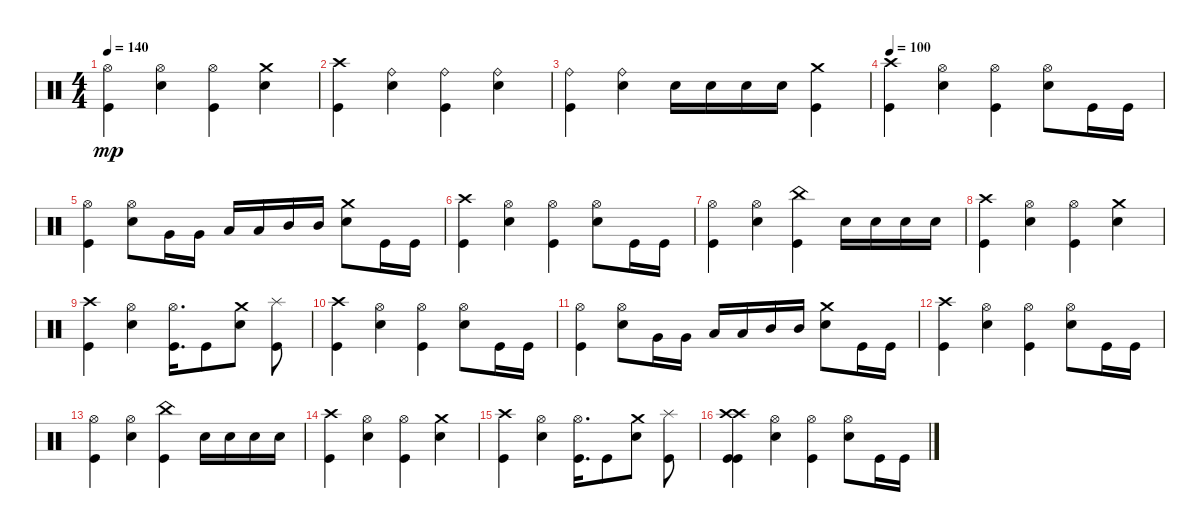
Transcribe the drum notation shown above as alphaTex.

\track "" {instrument percussion}
\staff {score}
\articulation defaults
\ts (4 4)
\tempo 140
\clef neutral
\ks c
("Kick (hit)" "Hi-Hat (open)").4{dy mp} ("Snare (hit) 2" "Hi-Hat (open)").4 ("Kick (hit)" "Hi-Hat (open)").4 ("Snare (hit) 2" "Crash medium (hit)").4 |
("Crash high (hit)" "Kick (hit)").4 ("Snare (hit) 2" "Ride (bell)").4 ("Kick (hit)" "Ride (bell)").4 ("Snare (hit) 2" "Ride (bell)").4 |
("Kick (hit)" "Ride (bell)").4 ("Snare (hit) 2" "Ride (bell)").4 "Snare (hit) 2".16 "Snare (hit) 2".16 "Snare (hit) 2".16 "Snare (hit) 2".16 ("Kick (hit)" "Crash medium (hit)").4 |
\tempo 100
("Crash high (hit)" "Kick (hit)").4 ("Hi-Hat (open)" "Snare (hit) 2").4 ("Hi-Hat (open)" "Kick (hit)").4 ("Hi-Hat (open)" "Snare (hit) 2").8 "Kick (hit)".16 "Kick (hit)".16 |
("Kick (hit)" "Hi-Hat (open)").4 ("Hi-Hat (open)" "Snare (hit) 2").8 "Very Low Tom (hit)".16 "Very Low Tom (hit)".16 "Low Tom (hit)".16 "Low Tom (hit)".16 "Mid Tom (hit)".16 "Mid Tom (hit)".16 ("Crash medium (hit)" "Snare (hit) 2").8 "Kick (hit)".16 "Kick (hit)".16 |
("Crash high (hit)" "Kick (hit)").4 ("Hi-Hat (open)" "Snare (hit) 2").4 ("Hi-Hat (open)" "Kick (hit)").4 ("Hi-Hat (open)" "Snare (hit) 2").8 "Kick (hit)".16 "Kick (hit)".16 |
("Kick (hit)" "Hi-Hat (open)").4 ("Hi-Hat (open)" "Snare (hit) 2").4 ("Kick (hit)" "China (hit)").4 "Snare (hit) 2".16 "Snare (hit) 2".16 "Snare (hit) 2".16 "Snare (hit) 2".16 |
("Crash high (hit)" "Kick (hit)").4 ("Snare (hit) 2" "Hi-Hat (open)").4 ("Kick (hit)" "Hi-Hat (open)").4 ("Snare (hit) 2" "Crash medium (hit)").4 |
("Crash high (hit)" "Kick (hit)").4 ("Snare (hit) 2" "Hi-Hat (open)").4 ("Kick (hit)" "Hi-Hat (open)").16{d} "Kick (hit)".8 ("Snare (hit) 2" "Crash medium (hit)").8 ("Splash (hit)" "Kick (hit)").8 |
("Crash high (hit)" "Kick (hit)").4 ("Hi-Hat (open)" "Snare (hit) 2").4 ("Hi-Hat (open)" "Kick (hit)").4 ("Hi-Hat (open)" "Snare (hit) 2").8 "Kick (hit)".16 "Kick (hit)".16 |
("Kick (hit)" "Hi-Hat (open)").4 ("Hi-Hat (open)" "Snare (hit) 2").8 "Very Low Tom (hit)".16 "Very Low Tom (hit)".16 "Low Tom (hit)".16 "Low Tom (hit)".16 "Mid Tom (hit)".16 "Mid Tom (hit)".16 ("Crash medium (hit)" "Snare (hit) 2").8 "Kick (hit)".16 "Kick (hit)".16 |
("Crash high (hit)" "Kick (hit)").4 ("Hi-Hat (open)" "Snare (hit) 2").4 ("Hi-Hat (open)" "Kick (hit)").4 ("Hi-Hat (open)" "Snare (hit) 2").8 "Kick (hit)".16 "Kick (hit)".16 |
("Kick (hit)" "Hi-Hat (open)").4 ("Hi-Hat (open)" "Snare (hit) 2").4 ("Kick (hit)" "China (hit)").4 "Snare (hit) 2".16 "Snare (hit) 2".16 "Snare (hit) 2".16 "Snare (hit) 2".16 |
("Crash high (hit)" "Kick (hit)").4 ("Snare (hit) 2" "Hi-Hat (open)").4 ("Kick (hit)" "Hi-Hat (open)").4 ("Snare (hit) 2" "Crash medium (hit)").4 |
("Crash high (hit)" "Kick (hit)").4 ("Snare (hit) 2" "Hi-Hat (open)").4 ("Kick (hit)" "Hi-Hat (open)").16{d} "Kick (hit)".8 ("Snare (hit) 2" "Crash medium (hit)").8 ("Splash (hit)" "Kick (hit)").8 |
("Crash high (hit)" "Kick (hit)" "Crash high (hit)" "Kick (hit)").4 ("Hi-Hat (open)" "Snare (hit) 2").4 ("Hi-Hat (open)" "Kick (hit)").4 ("Hi-Hat (open)" "Snare (hit) 2").8 "Kick (hit)".16 "Kick (hit)".16
